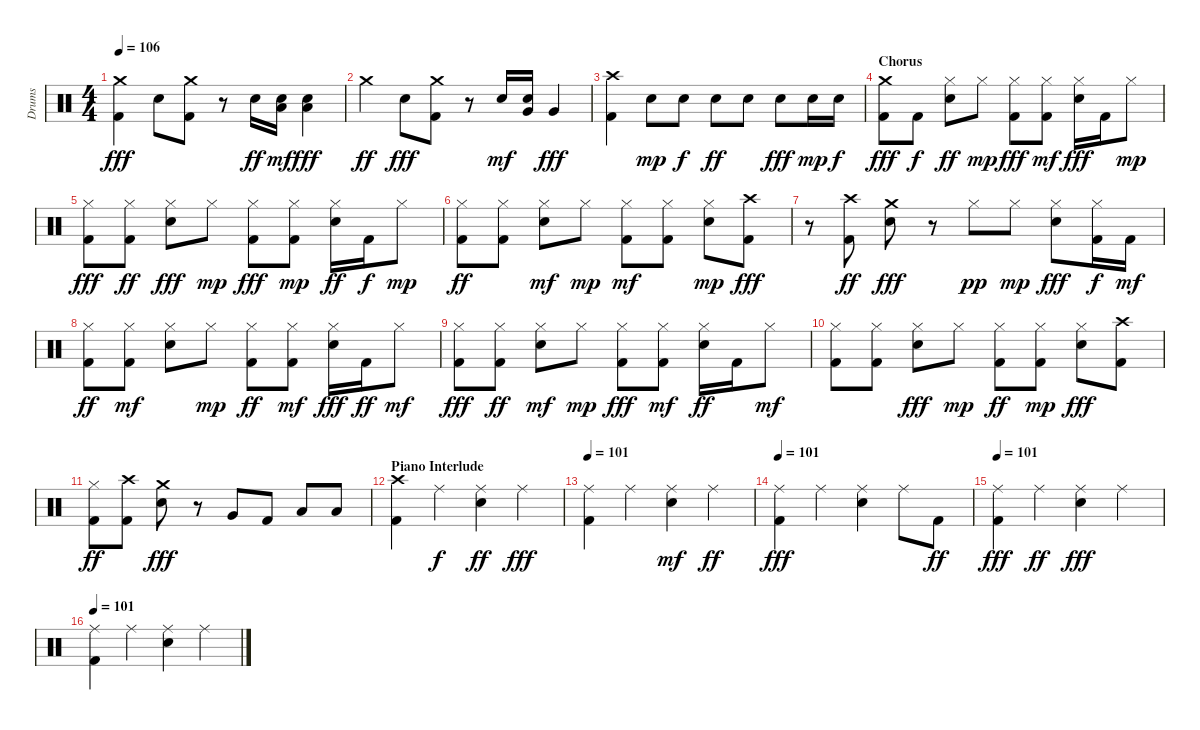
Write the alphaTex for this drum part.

\track ("Drums" "Drums") {instrument percussion}
\staff {score}
\articulation defaults
\ts (4 4)
\tempo 106
\clef neutral
\ks c
("Crash medium (hit)" "Kick (hit) 2").4{dy fff} "Snare (hit) 2".8 ("Crash medium (hit)" "Kick (hit) 2").8 r.8 "Snare (hit) 2".16{dy ff} ("Snare (hit) 2" "Low Floor Tom (hit)").16{dy mf} ("Snare (hit) 2" "Low Floor Tom (hit)").4{dy fff} |
"Crash medium (hit)".4{dy ff} "Snare (hit) 2".8{dy fff} ("Crash medium (hit)" "Kick (hit) 2").8 r.8 "Snare (hit) 2".16{dy mf} ("Snare (hit) 2" "Very Low Tom (hit)").16 "Very Low Tom (hit)".4{dy fff} |
("Crash high (hit)" "Kick (hit) 2").4 "Snare (hit) 2".8{dy mp} "Snare (hit) 2".8{dy f} "Snare (hit) 2".8{dy ff} "Snare (hit) 2".8 "Snare (hit) 2".8{dy fff} "Snare (hit) 2".16{dy mp} "Snare (hit) 2".16{dy f} |
\section ("" "Chorus")
("Crash medium (hit)" "Kick (hit) 2").8{dy fff} "Kick (hit) 2".8{dy f} ("Hi-Hat (closed)" "Snare (hit) 2").8{dy ff} "Hi-Hat (closed)".8{dy mp} ("Hi-Hat (closed)" "Kick (hit) 2").8{dy fff} ("Hi-Hat (closed)" "Kick (hit) 2").8{dy mf} ("Hi-Hat (closed)" "Snare (hit) 2").16{dy fff} "Kick (hit) 2".16 "Hi-Hat (closed)".8{dy mp} |
("Hi-Hat (closed)" "Kick (hit) 2").8{dy fff} ("Hi-Hat (closed)" "Kick (hit) 2").8{dy ff} ("Hi-Hat (closed)" "Snare (hit) 2").8{dy fff} "Hi-Hat (closed)".8{dy mp} ("Hi-Hat (closed)" "Kick (hit) 2").8{dy fff} ("Kick (hit) 2" "Hi-Hat (closed)").8{dy mp} ("Hi-Hat (closed)" "Snare (hit) 2").16{dy ff} "Kick (hit) 2".16{dy f} "Hi-Hat (closed)".8{dy mp} |
("Hi-Hat (closed)" "Kick (hit) 2").8{dy ff} ("Hi-Hat (closed)" "Kick (hit) 2").8 ("Snare (hit) 2" "Hi-Hat (closed)").8{dy mf} "Hi-Hat (closed)".8{dy mp} ("Kick (hit) 2" "Hi-Hat (closed)").8{dy mf} ("Kick (hit) 2" "Hi-Hat (closed)").8 ("Snare (hit) 2" "Hi-Hat (closed)").8{dy mp} ("Crash high (hit)" "Kick (hit) 2").8{dy fff} |
r.8 ("Crash high (hit)" "Kick (hit) 2").8{dy ff} ("Crash medium (hit)" "Snare (hit) 2").8{dy fff} r.8 "Hi-Hat (closed)".8{dy pp} "Hi-Hat (closed)".8{dy mp} ("Hi-Hat (closed)" "Snare (hit) 2").8{dy fff} ("Kick (hit) 2" "Hi-Hat (closed)").16{dy f} "Kick (hit) 2".16{dy mf} |
("Kick (hit) 2" "Hi-Hat (closed)").8{dy ff} ("Kick (hit) 2" "Hi-Hat (closed)").8{dy mf} ("Snare (hit) 2" "Hi-Hat (closed)").8 "Hi-Hat (closed)".8{dy mp} ("Hi-Hat (closed)" "Kick (hit) 2").8{dy ff} ("Hi-Hat (closed)" "Kick (hit) 2").8{dy mf} ("Snare (hit) 2" "Hi-Hat (closed)").16{dy fff} "Kick (hit) 2".16{dy ff} "Hi-Hat (closed)".8{dy mf} |
("Hi-Hat (closed)" "Kick (hit) 2").8{dy fff} ("Hi-Hat (closed)" "Kick (hit) 2").8{dy ff} ("Snare (hit) 2" "Hi-Hat (closed)").8{dy mf} "Hi-Hat (closed)".8{dy mp} ("Kick (hit) 2" "Hi-Hat (closed)").8{dy fff} ("Kick (hit) 2" "Hi-Hat (closed)").8{dy mf} ("Snare (hit) 2" "Hi-Hat (closed)").16{dy ff} "Kick (hit) 2".16 "Hi-Hat (closed)".8{dy mf} |
("Kick (hit) 2" "Hi-Hat (closed)").8 ("Kick (hit) 2" "Hi-Hat (closed)").8 ("Snare (hit) 2" "Hi-Hat (closed)").8{dy fff} "Hi-Hat (closed)".8{dy mp} ("Kick (hit) 2" "Hi-Hat (closed)").8{dy ff} ("Hi-Hat (closed)" "Kick (hit) 2").8{dy mp} ("Snare (hit) 2" "Hi-Hat (closed)").8{dy fff} ("Crash high (hit)" "Kick (hit) 2").8 |
("Kick (hit) 2" "Hi-Hat (closed)").8{dy ff} ("Crash high (hit)" "Kick (hit) 2").8 ("Snare (hit) 2" "Crash medium (hit)").8{dy fff} r.8 "Very Low Tom (hit)".8 "Kick (hit) 2".8 "Low Tom (hit)".8 "Low Floor Tom (hit)".8 |
\section ("" "Piano Interlude")
("Kick (hit) 2" "Crash high (hit)").4 "Ride (middle)".4{dy f} ("Snare (hit) 2" "Ride (middle)").4{dy ff} "Ride (middle)".4{dy fff} |
\tempo 101
("Ride (middle)" "Kick (hit) 2").4 "Ride (middle)".4 ("Snare (hit) 2" "Ride (middle)").4{dy mf} "Ride (middle)".4{dy ff} |
\tempo 101
("Ride (middle)" "Kick (hit) 2").4{dy fff} "Ride (middle)".4 ("Snare (hit) 2" "Ride (middle)").4 "Ride (middle)".8 "Kick (hit) 2".8{dy ff} |
\tempo 101
("Ride (middle)" "Kick (hit) 2").4{dy fff} "Ride (middle)".4{dy ff} ("Ride (middle)" "Snare (hit) 2").4{dy fff} "Ride (middle)".4 |
\tempo 101
("Ride (middle)" "Kick (hit) 2").4 "Ride (middle)".4 ("Snare (hit) 2" "Ride (middle)").4 "Ride (middle)".4
